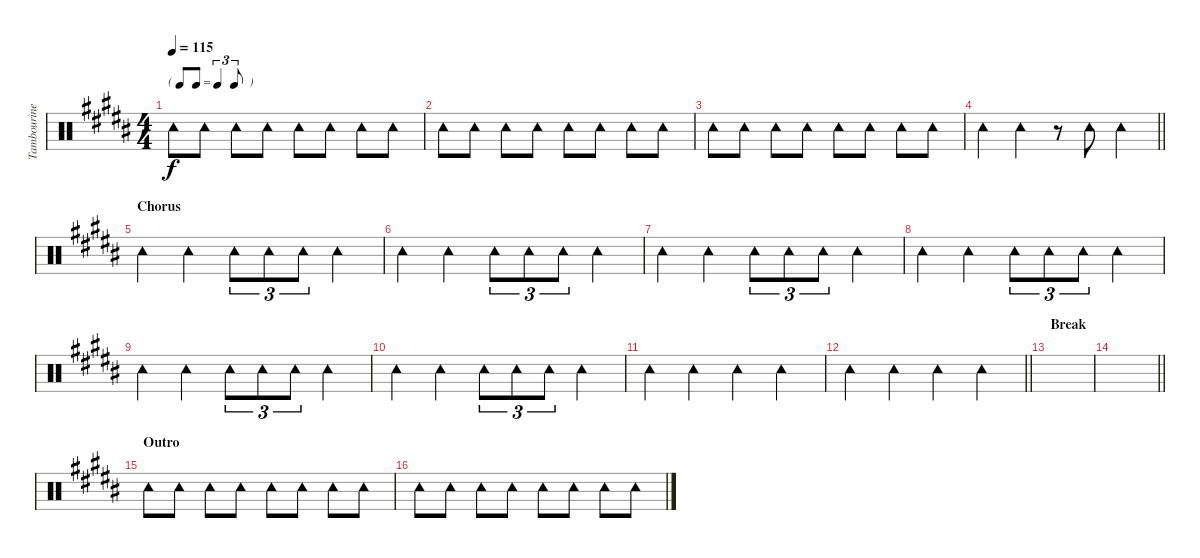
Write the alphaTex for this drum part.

\track ("Tambourine" "Tambourine") {instrument percussion}
\staff {score}
\articulation defaults
\ts (4 4)
\tf triplet8th
\tempo 115
\clef neutral
\ks b "Tambourine (hit)".8{dy f} "Tambourine (hit)".8 "Tambourine (hit)".8 "Tambourine (hit)".8 "Tambourine (hit)".8 "Tambourine (hit)".8 "Tambourine (hit)".8 "Tambourine (hit)".8
|
"Tambourine (hit)".8 "Tambourine (hit)".8 "Tambourine (hit)".8 "Tambourine (hit)".8 "Tambourine (hit)".8 "Tambourine (hit)".8 "Tambourine (hit)".8 "Tambourine (hit)".8 |
"Tambourine (hit)".8 "Tambourine (hit)".8 "Tambourine (hit)".8 "Tambourine (hit)".8 "Tambourine (hit)".8 "Tambourine (hit)".8 "Tambourine (hit)".8 "Tambourine (hit)".8 |
\barLineRight lightlight "Tambourine (hit)".4 "Tambourine (hit)".4
r.8 "Tambourine (hit)".8 "Tambourine (hit)".4 |
\section ("" "Chorus")
"Tambourine (hit)".4 "Tambourine (hit)".4 "Tambourine (hit)".8{tu (3 2)} "Tambourine (hit)".8{tu (3 2)} "Tambourine (hit)".8{tu (3 2)} "Tambourine (hit)".4 |
"Tambourine (hit)".4 "Tambourine (hit)".4 "Tambourine (hit)".8{tu (3 2)} "Tambourine (hit)".8{tu (3 2)} "Tambourine (hit)".8{tu (3 2)} "Tambourine (hit)".4 |
"Tambourine (hit)".4 "Tambourine (hit)".4 "Tambourine (hit)".8{tu (3 2)} "Tambourine (hit)".8{tu (3 2)} "Tambourine (hit)".8{tu (3 2)} "Tambourine (hit)".4 |
"Tambourine (hit)".4 "Tambourine (hit)".4 "Tambourine (hit)".8{tu (3 2)} "Tambourine (hit)".8{tu (3 2)} "Tambourine (hit)".8{tu (3 2)} "Tambourine (hit)".4 |
"Tambourine (hit)".4 "Tambourine (hit)".4 "Tambourine (hit)".8{tu (3 2)} "Tambourine (hit)".8{tu (3 2)} "Tambourine (hit)".8{tu (3 2)} "Tambourine (hit)".4 |
"Tambourine (hit)".4 "Tambourine (hit)".4 "Tambourine (hit)".8{tu (3 2)} "Tambourine (hit)".8{tu (3 2)} "Tambourine (hit)".8{tu (3 2)} "Tambourine (hit)".4 |
"Tambourine (hit)".4 "Tambourine (hit)".4 "Tambourine (hit)".4 "Tambourine (hit)".4 |
\barLineRight lightlight "Tambourine (hit)".4 "Tambourine (hit)".4 "Tambourine (hit)".4 "Tambourine (hit)".4
|
\section ("" "Break")
|
\barLineRight lightlight
|
\section ("" "Outro")
"Tambourine (hit)".8 "Tambourine (hit)".8 "Tambourine (hit)".8 "Tambourine (hit)".8 "Tambourine (hit)".8 "Tambourine (hit)".8 "Tambourine (hit)".8 "Tambourine (hit)".8 |
"Tambourine (hit)".8 "Tambourine (hit)".8 "Tambourine (hit)".8 "Tambourine (hit)".8 "Tambourine (hit)".8 "Tambourine (hit)".8 "Tambourine (hit)".8 "Tambourine (hit)".8
